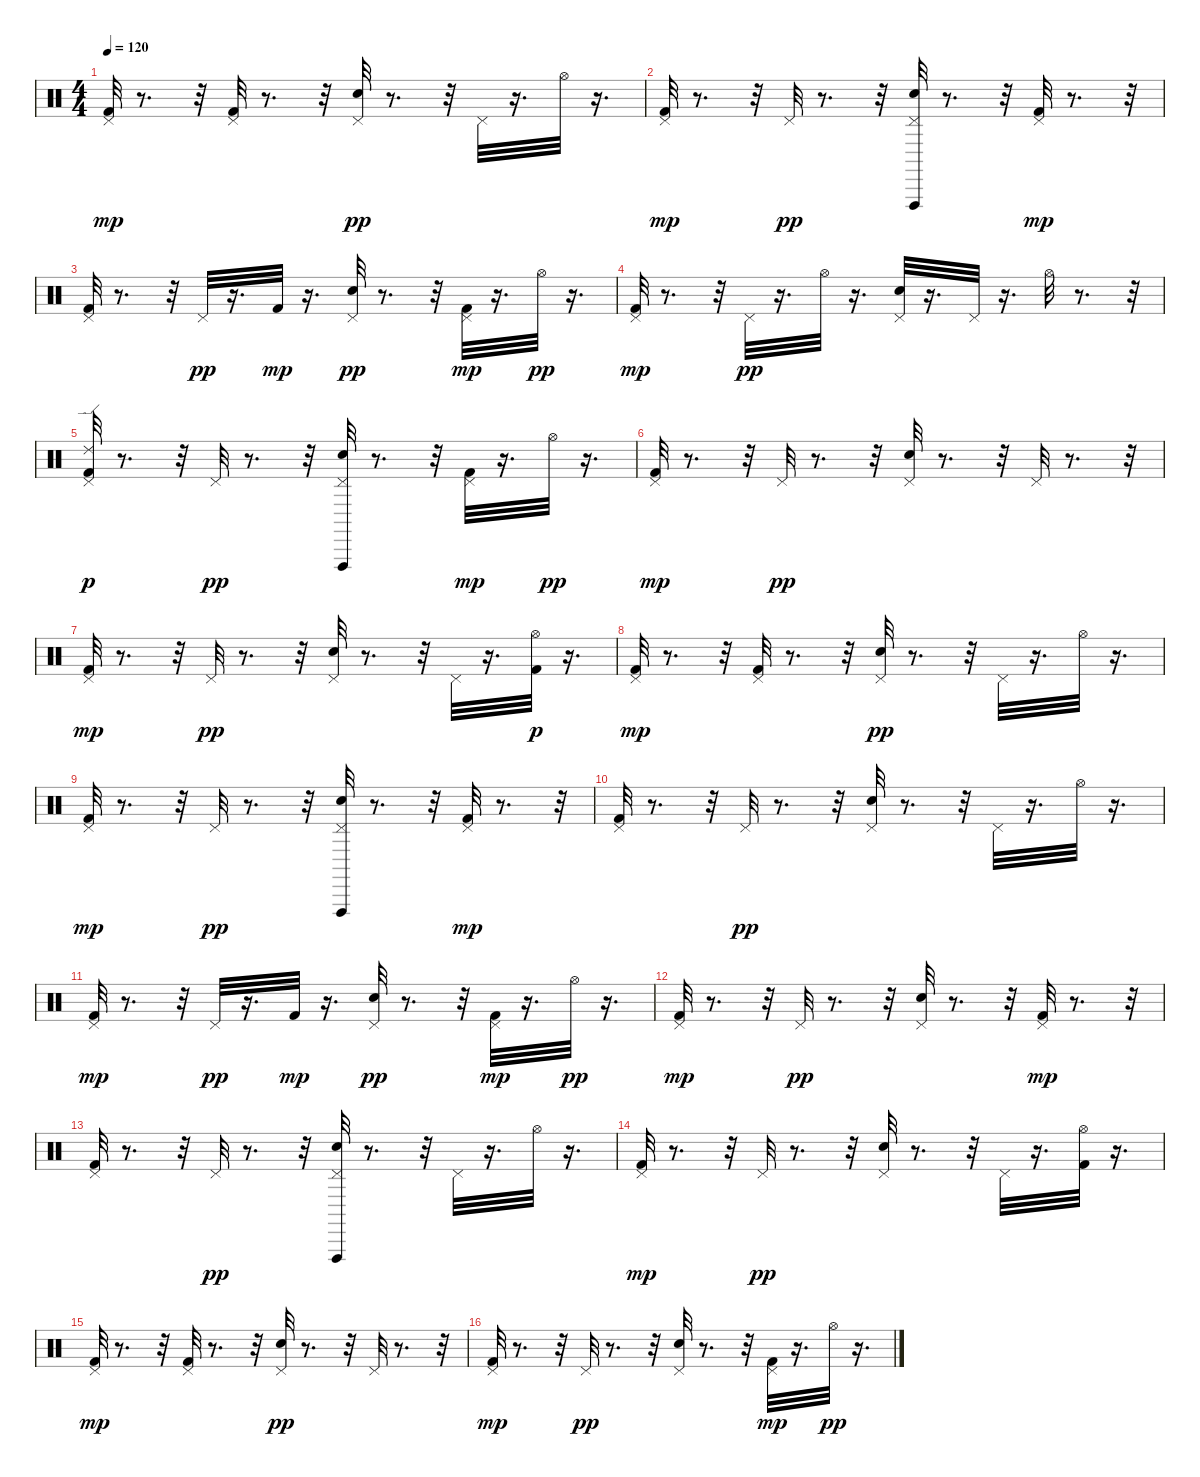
\track "" {instrument percussion}
\staff {score}
\articulation defaults
\ts (4 4)
\tempo 120
\clef neutral
\ks c
("Pedal Hi-Hat (hit)" "Kick (hit) 2").32{dy mp} r.8{d} r.32 ("Pedal Hi-Hat (hit)" "Kick (hit) 2").32 r.8{d} r.32 ("Pedal Hi-Hat (hit)" "Snare (hit) 2").32{dy pp} r.8{d} r.32 "Pedal Hi-Hat (hit)".32 r.16{d} "Hi-Hat (open)".32 r.16{d} |
("Pedal Hi-Hat (hit)" "Kick (hit) 2").32{dy mp} r.8{d} r.32 "Pedal Hi-Hat (hit)".32{dy pp} r.8{d} r.32 ("Vibraslap (hit)" "Pedal Hi-Hat (hit)" "Snare (hit) 2").32 r.8{d} r.32 ("Pedal Hi-Hat (hit)" "Kick (hit) 2").32{dy mp} r.8{d} r.32 |
("Pedal Hi-Hat (hit)" "Kick (hit) 2").32 r.8{d} r.32 "Pedal Hi-Hat (hit)".32{dy pp} r.16{d} "Kick (hit) 2".32{dy mp} r.16{d} ("Pedal Hi-Hat (hit)" "Snare (hit) 2").32{dy pp} r.8{d} r.32 ("Pedal Hi-Hat (hit)" "Kick (hit) 2").32{dy mp} r.16{d} "Hi-Hat (open)".32{dy pp} r.16{d} |
("Pedal Hi-Hat (hit)" "Kick (hit) 2").32{dy mp} r.8{d} r.32 "Pedal Hi-Hat (hit)".32{dy pp} r.16{d} "Hi-Hat (open)".32 r.16{d} ("Pedal Hi-Hat (hit)" "Snare (hit) 2").32 r.16{d} "Pedal Hi-Hat (hit)".32 r.16{d} "Hi-Hat (open)".32 r.8{d} r.32 |
("Pedal Hi-Hat (hit)" "Kick (hit) 2" "Ride (edge) 2").32{dy p} r.8{d} r.32 "Pedal Hi-Hat (hit)".32{dy pp} r.8{d} r.32 ("Vibraslap (hit)" "Pedal Hi-Hat (hit)" "Snare (hit) 2").32 r.8{d} r.32 ("Pedal Hi-Hat (hit)" "Kick (hit) 2").32{dy mp} r.16{d} "Hi-Hat (open)".32{dy pp} r.16{d} |
("Pedal Hi-Hat (hit)" "Kick (hit) 2").32{dy mp} r.8{d} r.32 "Pedal Hi-Hat (hit)".32{dy pp} r.8{d} r.32 ("Pedal Hi-Hat (hit)" "Snare (hit) 2").32 r.8{d} r.32 "Pedal Hi-Hat (hit)".32 r.8{d} r.32 |
("Pedal Hi-Hat (hit)" "Kick (hit) 2").32{dy mp} r.8{d} r.32 "Pedal Hi-Hat (hit)".32{dy pp} r.8{d} r.32 ("Pedal Hi-Hat (hit)" "Snare (hit) 2").32 r.8{d} r.32 "Pedal Hi-Hat (hit)".32 r.16{d} ("Hi-Hat (open)" "Kick (hit) 2").32{dy p} r.16{d} |
("Pedal Hi-Hat (hit)" "Kick (hit) 2").32{dy mp} r.8{d} r.32 ("Pedal Hi-Hat (hit)" "Kick (hit) 2").32 r.8{d} r.32 ("Pedal Hi-Hat (hit)" "Snare (hit) 2").32{dy pp} r.8{d} r.32 "Pedal Hi-Hat (hit)".32 r.16{d} "Hi-Hat (open)".32 r.16{d} |
("Pedal Hi-Hat (hit)" "Kick (hit) 2").32{dy mp} r.8{d} r.32 "Pedal Hi-Hat (hit)".32{dy pp} r.8{d} r.32 ("Vibraslap (hit)" "Pedal Hi-Hat (hit)" "Snare (hit) 2").32 r.8{d} r.32 ("Pedal Hi-Hat (hit)" "Kick (hit) 2").32{dy mp} r.8{d} r.32 |
("Pedal Hi-Hat (hit)" "Kick (hit) 2").32 r.8{d} r.32 "Pedal Hi-Hat (hit)".32{dy pp} r.8{d} r.32 ("Pedal Hi-Hat (hit)" "Snare (hit) 2").32 r.8{d} r.32 "Pedal Hi-Hat (hit)".32 r.16{d} "Hi-Hat (open)".32 r.16{d} |
("Pedal Hi-Hat (hit)" "Kick (hit) 2").32{dy mp} r.8{d} r.32 "Pedal Hi-Hat (hit)".32{dy pp} r.16{d} "Kick (hit) 2".32{dy mp} r.16{d} ("Pedal Hi-Hat (hit)" "Snare (hit) 2").32{dy pp} r.8{d} r.32 ("Pedal Hi-Hat (hit)" "Kick (hit) 2").32{dy mp} r.16{d} "Hi-Hat (open)".32{dy pp} r.16{d} |
("Pedal Hi-Hat (hit)" "Kick (hit) 2").32{dy mp} r.8{d} r.32 "Pedal Hi-Hat (hit)".32{dy pp} r.8{d} r.32 ("Pedal Hi-Hat (hit)" "Snare (hit) 2").32 r.8{d} r.32 ("Pedal Hi-Hat (hit)" "Kick (hit) 2").32{dy mp} r.8{d} r.32 |
("Pedal Hi-Hat (hit)" "Kick (hit) 2").32 r.8{d} r.32 "Pedal Hi-Hat (hit)".32{dy pp} r.8{d} r.32 ("Vibraslap (hit)" "Pedal Hi-Hat (hit)" "Snare (hit) 2").32 r.8{d} r.32 "Pedal Hi-Hat (hit)".32 r.16{d} "Hi-Hat (open)".32 r.16{d} |
("Pedal Hi-Hat (hit)" "Kick (hit) 2").32{dy mp} r.8{d} r.32 "Pedal Hi-Hat (hit)".32{dy pp} r.8{d} r.32 ("Pedal Hi-Hat (hit)" "Snare (hit) 2").32 r.8{d} r.32 "Pedal Hi-Hat (hit)".32 r.16{d} ("Kick (hit) 2" "Hi-Hat (open)").32 r.16{d} |
("Pedal Hi-Hat (hit)" "Kick (hit) 2").32{dy mp} r.8{d} r.32 ("Pedal Hi-Hat (hit)" "Kick (hit) 2").32 r.8{d} r.32 ("Pedal Hi-Hat (hit)" "Snare (hit) 2").32{dy pp} r.8{d} r.32 "Pedal Hi-Hat (hit)".32 r.8{d} r.32 |
("Pedal Hi-Hat (hit)" "Kick (hit) 2").32{dy mp} r.8{d} r.32 "Pedal Hi-Hat (hit)".32{dy pp} r.8{d} r.32 ("Pedal Hi-Hat (hit)" "Snare (hit) 2").32 r.8{d} r.32 ("Pedal Hi-Hat (hit)" "Kick (hit) 2").32{dy mp} r.16{d} "Hi-Hat (open)".32{dy pp} r.16{d}
